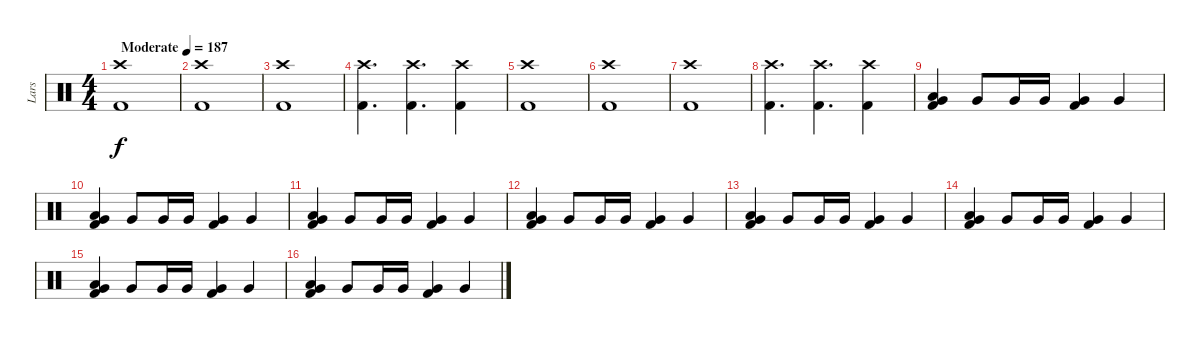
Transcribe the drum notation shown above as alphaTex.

\track ("Lars" "Lars") {instrument percussion}
\staff {score}
\articulation defaults
\ts (4 4)
\section ("" "")
\tempo (187 "Moderate")
\clef neutral
\ks c
("Crash high (hit)" "Kick (hit) 2").1{dy f} |
("Crash high (hit)" "Kick (hit) 2").1 |
("Crash high (hit)" "Kick (hit) 2").1 |
("Crash high (hit)" "Kick (hit) 2").4{d} ("Crash high (hit)" "Kick (hit) 2").4{d} ("Crash high (hit)" "Kick (hit) 2").4 |
("Crash high (hit)" "Kick (hit) 2").1 |
("Crash high (hit)" "Kick (hit) 2").1 |
("Crash high (hit)" "Kick (hit) 2").1 |
("Crash high (hit)" "Kick (hit) 2").4{d} ("Crash high (hit)" "Kick (hit) 2").4{d} ("Crash high (hit)" "Kick (hit) 2").4 |
("Low Tom (hit)" "Very Low Tom (hit)" "Kick (hit) 2").4 "Very Low Tom (hit)".8 "Very Low Tom (hit)".16 "Very Low Tom (hit)".16 ("Very Low Tom (hit)" "Kick (hit) 2").4 "Very Low Tom (hit)".4 |
("Low Tom (hit)" "Very Low Tom (hit)" "Kick (hit) 2").4 "Very Low Tom (hit)".8 "Very Low Tom (hit)".16 "Very Low Tom (hit)".16 ("Very Low Tom (hit)" "Kick (hit) 2").4 "Very Low Tom (hit)".4 |
("Low Tom (hit)" "Very Low Tom (hit)" "Kick (hit) 2").4 "Very Low Tom (hit)".8 "Very Low Tom (hit)".16 "Very Low Tom (hit)".16 ("Very Low Tom (hit)" "Kick (hit) 2").4 "Very Low Tom (hit)".4 |
("Low Tom (hit)" "Very Low Tom (hit)" "Kick (hit) 2").4 "Very Low Tom (hit)".8 "Very Low Tom (hit)".16 "Very Low Tom (hit)".16 ("Very Low Tom (hit)" "Kick (hit) 2").4 "Very Low Tom (hit)".4 |
("Low Tom (hit)" "Very Low Tom (hit)" "Kick (hit) 2").4 "Very Low Tom (hit)".8 "Very Low Tom (hit)".16 "Very Low Tom (hit)".16 ("Very Low Tom (hit)" "Kick (hit) 2").4 "Very Low Tom (hit)".4 |
("Low Tom (hit)" "Very Low Tom (hit)" "Kick (hit) 2").4 "Very Low Tom (hit)".8 "Very Low Tom (hit)".16 "Very Low Tom (hit)".16 ("Very Low Tom (hit)" "Kick (hit) 2").4 "Very Low Tom (hit)".4 |
("Low Tom (hit)" "Very Low Tom (hit)" "Kick (hit) 2").4 "Very Low Tom (hit)".8 "Very Low Tom (hit)".16 "Very Low Tom (hit)".16 ("Very Low Tom (hit)" "Kick (hit) 2").4 "Very Low Tom (hit)".4 |
("Low Tom (hit)" "Very Low Tom (hit)" "Kick (hit) 2").4 "Very Low Tom (hit)".8 "Very Low Tom (hit)".16 "Very Low Tom (hit)".16 ("Very Low Tom (hit)" "Kick (hit) 2").4 "Very Low Tom (hit)".4
